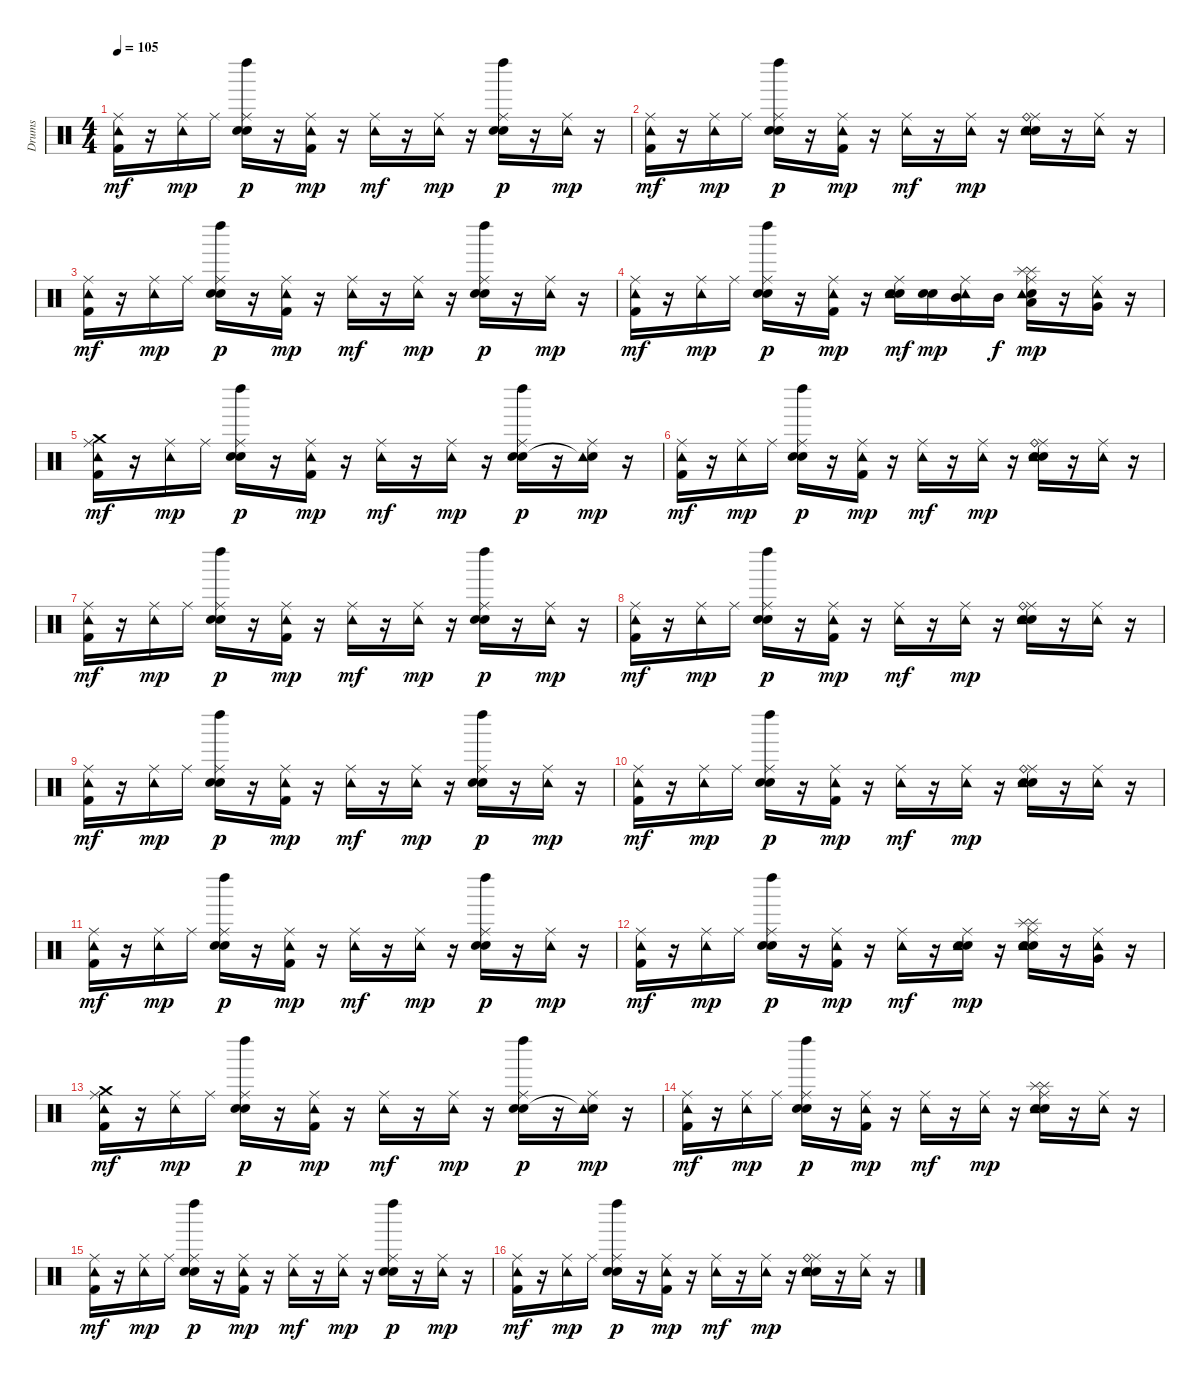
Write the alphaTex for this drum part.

\track ("Drums" "Drums") {instrument percussion}
\staff {score}
\articulation defaults
\ts (4 4)
\tempo 105
\clef neutral
\ks c
("Ride (middle)" "Tambourine (hit)" "Kick (hit) 2").16{dy mf} r.16 ("Ride (middle)" "Tambourine (hit)").16{dy mp} "Ride (middle)".16 ("Ride (middle)" "Electric Snare (hit)" "Snare (hit) 2" "Left Maraca (hit)").16{dy p} r.16 ("Ride (middle)" "Tambourine (hit)" "Kick (hit) 2").16{dy mp} r.16 ("Ride (middle)" "Tambourine (hit)").16{dy mf} r.16 ("Ride (middle)" "Tambourine (hit)").16{dy mp} r.16 ("Ride (middle)" "Electric Snare (hit)" "Snare (hit) 2" "Left Maraca (hit)").16{dy p} r.16 ("Ride (middle)" "Tambourine (hit)").16{dy mp} r.16 |
("Ride (middle)" "Tambourine (hit)" "Kick (hit) 2").16{dy mf} r.16 ("Ride (middle)" "Tambourine (hit)").16{dy mp} "Ride (middle)".16 ("Ride (middle)" "Electric Snare (hit)" "Snare (hit) 2" "Left Maraca (hit)").16{dy p} r.16 ("Ride (middle)" "Tambourine (hit)" "Kick (hit) 2").16{dy mp} r.16 ("Ride (middle)" "Tambourine (hit)").16{dy mf} r.16 ("Ride (middle)" "Tambourine (hit)").16{dy mp} r.16 ("Ride (middle)" "Ride (bell)" "Electric Snare (hit)" "Snare (hit) 2" "Tambourine (hit)").16 r.16 ("Ride (middle)" "Tambourine (hit)").16 r.16 |
("Ride (middle)" "Tambourine (hit)" "Kick (hit) 2").16{dy mf} r.16 ("Ride (middle)" "Tambourine (hit)").16{dy mp} "Ride (middle)".16 ("Ride (middle)" "Electric Snare (hit)" "Snare (hit) 2" "Left Maraca (hit)").16{dy p} r.16 ("Ride (middle)" "Tambourine (hit)" "Kick (hit) 2").16{dy mp} r.16 ("Ride (middle)" "Tambourine (hit)").16{dy mf} r.16 ("Ride (middle)" "Tambourine (hit)").16{dy mp} r.16 ("Ride (middle)" "Electric Snare (hit)" "Snare (hit) 2" "Left Maraca (hit)").16{dy p} r.16 ("Ride (middle)" "Tambourine (hit)").16{dy mp} r.16 |
("Ride (middle)" "Tambourine (hit)" "Kick (hit) 2").16{dy mf} r.16 ("Ride (middle)" "Tambourine (hit)").16{dy mp} "Ride (middle)".16 ("Ride (middle)" "Electric Snare (hit)" "Snare (hit) 2" "Left Maraca (hit)").16{dy p} r.16 ("Ride (middle)" "Tambourine (hit)" "Kick (hit) 2").16{dy mp} r.16 ("Ride (middle)" "Electric Snare (hit)" "Snare (hit) 2" "Tambourine (hit)").16{dy mf} ("Electric Snare (hit)" "Snare (hit) 2").16{dy mp} ("Ride (middle)" "Mid Tom (hit)" "Tambourine (hit)").16 "Mid Tom (hit)".16{dy f} ("Ride (middle)" "Splash (hit)" "Low Tom (hit)" "Snare (hit) 2" "Tambourine (hit)" "Splash (hit)").16{dy mp} r.16 ("Ride (middle)" "Very Low Tom (hit)" "Tambourine (hit)").16 r.16 |
("Ride (middle)" "Crash medium (hit)" "Tambourine (hit)" "Kick (hit) 2").16{dy mf} r.16 ("Ride (middle)" "Tambourine (hit)").16{dy mp} "Ride (middle)".16 ("Ride (middle)" "Electric Snare (hit)" "Snare (hit) 2" "Left Maraca (hit)").16{dy p} r.16 ("Ride (middle)" "Tambourine (hit)" "Kick (hit) 2").16{dy mp} r.16 ("Ride (middle)" "Tambourine (hit)").16{dy mf} r.16 ("Ride (middle)" "Tambourine (hit)").16{dy mp} r.16 ("Ride (middle)" "Electric Snare (hit)" "Snare (hit) 2" "Left Maraca (hit)").16{dy p} r.16 ("Ride (middle)" "Snare (hit)"{t} "Tambourine (hit)").16{dy mp} r.16 |
("Ride (middle)" "Tambourine (hit)" "Kick (hit) 2").16{dy mf} r.16 ("Ride (middle)" "Tambourine (hit)").16{dy mp} "Ride (middle)".16 ("Ride (middle)" "Electric Snare (hit)" "Snare (hit) 2" "Left Maraca (hit)").16{dy p} r.16 ("Ride (middle)" "Tambourine (hit)" "Kick (hit) 2").16{dy mp} r.16 ("Ride (middle)" "Tambourine (hit)").16{dy mf} r.16 ("Ride (middle)" "Tambourine (hit)").16{dy mp} r.16 ("Ride (middle)" "Ride (bell)" "Electric Snare (hit)" "Snare (hit) 2" "Tambourine (hit)").16 r.16 ("Ride (middle)" "Tambourine (hit)").16 r.16 |
("Ride (middle)" "Tambourine (hit)" "Kick (hit) 2").16{dy mf} r.16 ("Ride (middle)" "Tambourine (hit)").16{dy mp} "Ride (middle)".16 ("Ride (middle)" "Electric Snare (hit)" "Snare (hit) 2" "Left Maraca (hit)").16{dy p} r.16 ("Ride (middle)" "Tambourine (hit)" "Kick (hit) 2").16{dy mp} r.16 ("Ride (middle)" "Tambourine (hit)").16{dy mf} r.16 ("Ride (middle)" "Tambourine (hit)").16{dy mp} r.16 ("Ride (middle)" "Electric Snare (hit)" "Snare (hit) 2" "Left Maraca (hit)").16{dy p} r.16 ("Ride (middle)" "Tambourine (hit)").16{dy mp} r.16 |
("Ride (middle)" "Tambourine (hit)" "Kick (hit) 2").16{dy mf} r.16 ("Ride (middle)" "Tambourine (hit)").16{dy mp} "Ride (middle)".16 ("Ride (middle)" "Electric Snare (hit)" "Snare (hit) 2" "Left Maraca (hit)").16{dy p} r.16 ("Ride (middle)" "Tambourine (hit)" "Kick (hit) 2").16{dy mp} r.16 ("Ride (middle)" "Tambourine (hit)").16{dy mf} r.16 ("Ride (middle)" "Tambourine (hit)").16{dy mp} r.16 ("Ride (middle)" "Ride (bell)" "Electric Snare (hit)" "Snare (hit) 2" "Tambourine (hit)").16 r.16 ("Ride (middle)" "Tambourine (hit)").16 r.16 |
("Ride (middle)" "Tambourine (hit)" "Kick (hit) 2").16{dy mf} r.16 ("Ride (middle)" "Tambourine (hit)").16{dy mp} "Ride (middle)".16 ("Ride (middle)" "Electric Snare (hit)" "Snare (hit) 2" "Left Maraca (hit)").16{dy p} r.16 ("Ride (middle)" "Tambourine (hit)" "Kick (hit) 2").16{dy mp} r.16 ("Ride (middle)" "Tambourine (hit)").16{dy mf} r.16 ("Ride (middle)" "Tambourine (hit)").16{dy mp} r.16 ("Ride (middle)" "Electric Snare (hit)" "Snare (hit) 2" "Left Maraca (hit)").16{dy p} r.16 ("Ride (middle)" "Tambourine (hit)").16{dy mp} r.16 |
("Ride (middle)" "Tambourine (hit)" "Kick (hit) 2").16{dy mf} r.16 ("Ride (middle)" "Tambourine (hit)").16{dy mp} "Ride (middle)".16 ("Ride (middle)" "Electric Snare (hit)" "Snare (hit) 2" "Left Maraca (hit)").16{dy p} r.16 ("Ride (middle)" "Tambourine (hit)" "Kick (hit) 2").16{dy mp} r.16 ("Ride (middle)" "Tambourine (hit)").16{dy mf} r.16 ("Ride (middle)" "Tambourine (hit)").16{dy mp} r.16 ("Ride (middle)" "Ride (bell)" "Electric Snare (hit)" "Snare (hit) 2" "Tambourine (hit)").16 r.16 ("Ride (middle)" "Tambourine (hit)").16 r.16 |
("Ride (middle)" "Tambourine (hit)" "Kick (hit) 2").16{dy mf} r.16 ("Ride (middle)" "Tambourine (hit)").16{dy mp} "Ride (middle)".16 ("Ride (middle)" "Electric Snare (hit)" "Snare (hit) 2" "Left Maraca (hit)").16{dy p} r.16 ("Ride (middle)" "Tambourine (hit)" "Kick (hit) 2").16{dy mp} r.16 ("Ride (middle)" "Tambourine (hit)").16{dy mf} r.16 ("Ride (middle)" "Tambourine (hit)").16{dy mp} r.16 ("Ride (middle)" "Electric Snare (hit)" "Snare (hit) 2" "Left Maraca (hit)").16{dy p} r.16 ("Ride (middle)" "Tambourine (hit)").16{dy mp} r.16 |
("Ride (middle)" "Tambourine (hit)" "Kick (hit) 2").16{dy mf} r.16 ("Ride (middle)" "Tambourine (hit)").16{dy mp} "Ride (middle)".16 ("Ride (middle)" "Electric Snare (hit)" "Snare (hit) 2" "Left Maraca (hit)").16{dy p} r.16 ("Ride (middle)" "Tambourine (hit)" "Kick (hit) 2").16{dy mp} r.16 ("Ride (middle)" "Tambourine (hit)").16{dy mf} r.16 ("Ride (middle)" "Electric Snare (hit)" "Snare (hit) 2" "Tambourine (hit)").16{dy mp} r.16 ("Ride (middle)" "Splash (hit)" "Electric Snare (hit)" "Snare (hit) 2" "Tambourine (hit)" "Splash (hit)").16 r.16 ("Ride (middle)" "Very Low Tom (hit)" "Tambourine (hit)").16 r.16 |
("Ride (middle)" "Crash medium (hit)" "Tambourine (hit)" "Kick (hit) 2").16{dy mf} r.16 ("Ride (middle)" "Tambourine (hit)").16{dy mp} "Ride (middle)".16 ("Ride (middle)" "Electric Snare (hit)" "Snare (hit) 2" "Left Maraca (hit)").16{dy p} r.16 ("Ride (middle)" "Tambourine (hit)" "Kick (hit) 2").16{dy mp} r.16 ("Ride (middle)" "Tambourine (hit)").16{dy mf} r.16 ("Ride (middle)" "Tambourine (hit)").16{dy mp} r.16 ("Ride (middle)" "Electric Snare (hit)" "Snare (hit) 2" "Left Maraca (hit)").16{dy p} r.16 ("Ride (middle)" "Snare (hit)"{t} "Tambourine (hit)").16{dy mp} r.16 |
("Ride (middle)" "Tambourine (hit)" "Kick (hit) 2").16{dy mf} r.16 ("Ride (middle)" "Tambourine (hit)").16{dy mp} "Ride (middle)".16 ("Ride (middle)" "Electric Snare (hit)" "Snare (hit) 2" "Left Maraca (hit)").16{dy p} r.16 ("Ride (middle)" "Tambourine (hit)" "Kick (hit) 2").16{dy mp} r.16 ("Ride (middle)" "Tambourine (hit)").16{dy mf} r.16 ("Ride (middle)" "Tambourine (hit)").16{dy mp} r.16 ("Ride (middle)" "Splash (hit)" "Electric Snare (hit)" "Snare (hit) 2" "Tambourine (hit)" "Splash (hit)").16 r.16 ("Ride (middle)" "Tambourine (hit)").16 r.16 |
("Ride (middle)" "Tambourine (hit)" "Kick (hit) 2").16{dy mf} r.16 ("Ride (middle)" "Tambourine (hit)").16{dy mp} "Ride (middle)".16 ("Ride (middle)" "Electric Snare (hit)" "Snare (hit) 2" "Left Maraca (hit)").16{dy p} r.16 ("Ride (middle)" "Tambourine (hit)" "Kick (hit) 2").16{dy mp} r.16 ("Ride (middle)" "Tambourine (hit)").16{dy mf} r.16 ("Ride (middle)" "Tambourine (hit)").16{dy mp} r.16 ("Ride (middle)" "Electric Snare (hit)" "Snare (hit) 2" "Left Maraca (hit)").16{dy p} r.16 ("Ride (middle)" "Tambourine (hit)").16{dy mp} r.16 |
("Ride (middle)" "Tambourine (hit)" "Kick (hit) 2").16{dy mf} r.16 ("Ride (middle)" "Tambourine (hit)").16{dy mp} "Ride (middle)".16 ("Ride (middle)" "Electric Snare (hit)" "Snare (hit) 2" "Left Maraca (hit)").16{dy p} r.16 ("Ride (middle)" "Tambourine (hit)" "Kick (hit) 2").16{dy mp} r.16 ("Ride (middle)" "Tambourine (hit)").16{dy mf} r.16 ("Ride (middle)" "Tambourine (hit)").16{dy mp} r.16 ("Ride (middle)" "Ride (bell)" "Electric Snare (hit)" "Snare (hit) 2" "Tambourine (hit)").16 r.16 ("Ride (middle)" "Tambourine (hit)").16 r.16
